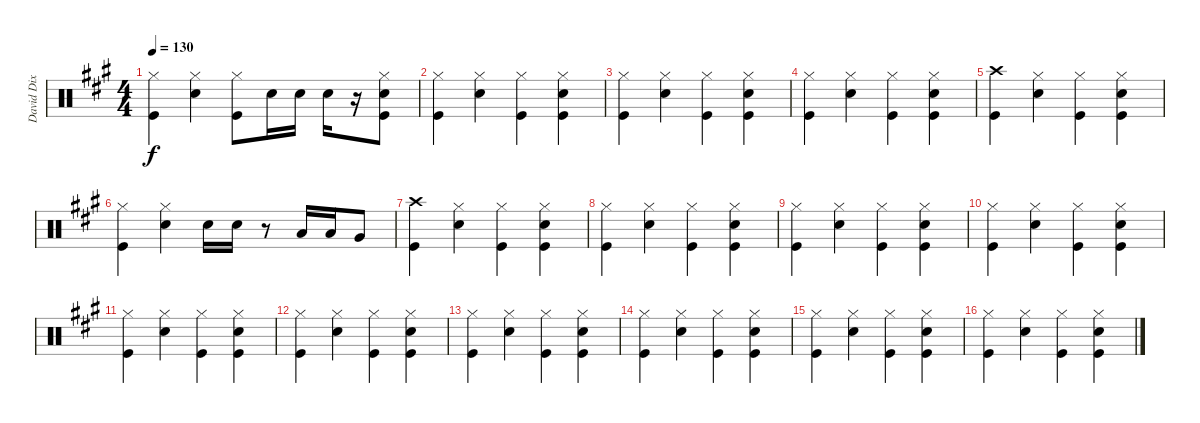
\track ("David Dix Drums" "David Dix ") {instrument percussion}
\staff {score}
\articulation defaults
\ts (4 4)
\tempo 130
\clef neutral
\ks f#minor
("Hi-Hat (closed)" "Kick (hit)").4{dy f} ("Hi-Hat (closed)" "Snare (hit) 2").4 ("Hi-Hat (closed)" "Kick (hit)").8 "Snare (hit) 2".16 "Snare (hit) 2".16 "Snare (hit) 2".16 r.16 ("Hi-Hat (closed)" "Snare (hit) 2" "Kick (hit)").8 |
("Hi-Hat (closed)" "Kick (hit)").4 ("Hi-Hat (closed)" "Snare (hit) 2").4 ("Hi-Hat (closed)" "Kick (hit)").4 ("Hi-Hat (closed)" "Snare (hit) 2" "Kick (hit)").4 |
("Hi-Hat (closed)" "Kick (hit)").4 ("Hi-Hat (closed)" "Snare (hit) 2").4 ("Hi-Hat (closed)" "Kick (hit)").4 ("Hi-Hat (closed)" "Snare (hit) 2" "Kick (hit)").4 |
("Hi-Hat (closed)" "Kick (hit)").4 ("Hi-Hat (closed)" "Snare (hit) 2").4 ("Hi-Hat (closed)" "Kick (hit)").4 ("Hi-Hat (closed)" "Snare (hit) 2" "Kick (hit)").4 |
("Crash high (hit)" "Kick (hit)").4 ("Hi-Hat (closed)" "Snare (hit) 2").4 ("Hi-Hat (closed)" "Kick (hit)").4 ("Hi-Hat (closed)" "Snare (hit) 2" "Kick (hit)").4 |
("Hi-Hat (closed)" "Kick (hit)").4 ("Hi-Hat (closed)" "Snare (hit) 2").4 "Snare (hit) 2".16 "Snare (hit) 2".16 r.8 "Low Tom (hit)".16 "Low Tom (hit)".16 "Very Low Tom (hit)".8 |
("Crash high (hit)" "Kick (hit)").4 ("Hi-Hat (closed)" "Snare (hit) 2").4 ("Hi-Hat (closed)" "Kick (hit)").4 ("Hi-Hat (closed)" "Snare (hit) 2" "Kick (hit)").4 |
("Hi-Hat (closed)" "Kick (hit)").4 ("Hi-Hat (closed)" "Snare (hit) 2").4 ("Hi-Hat (closed)" "Kick (hit)").4 ("Hi-Hat (closed)" "Snare (hit) 2" "Kick (hit)").4 |
("Hi-Hat (closed)" "Kick (hit)").4 ("Hi-Hat (closed)" "Snare (hit) 2").4 ("Hi-Hat (closed)" "Kick (hit)").4 ("Hi-Hat (closed)" "Snare (hit) 2" "Kick (hit)").4 |
("Hi-Hat (closed)" "Kick (hit)").4 ("Hi-Hat (closed)" "Snare (hit) 2").4 ("Hi-Hat (closed)" "Kick (hit)").4 ("Hi-Hat (closed)" "Snare (hit) 2" "Kick (hit)").4 |
("Hi-Hat (closed)" "Kick (hit)").4 ("Hi-Hat (closed)" "Snare (hit) 2").4 ("Hi-Hat (closed)" "Kick (hit)").4 ("Hi-Hat (closed)" "Snare (hit) 2" "Kick (hit)").4 |
("Hi-Hat (closed)" "Kick (hit)").4 ("Hi-Hat (closed)" "Snare (hit) 2").4 ("Hi-Hat (closed)" "Kick (hit)").4 ("Hi-Hat (closed)" "Snare (hit) 2" "Kick (hit)").4 |
("Hi-Hat (closed)" "Kick (hit)").4 ("Hi-Hat (closed)" "Snare (hit) 2").4 ("Hi-Hat (closed)" "Kick (hit)").4 ("Hi-Hat (closed)" "Snare (hit) 2" "Kick (hit)").4 |
("Hi-Hat (closed)" "Kick (hit)").4 ("Hi-Hat (closed)" "Snare (hit) 2").4 ("Hi-Hat (closed)" "Kick (hit)").4 ("Hi-Hat (closed)" "Snare (hit) 2" "Kick (hit)").4 |
("Hi-Hat (closed)" "Kick (hit)").4 ("Hi-Hat (closed)" "Snare (hit) 2").4 ("Hi-Hat (closed)" "Kick (hit)").4 ("Hi-Hat (closed)" "Snare (hit) 2" "Kick (hit)").4 |
("Hi-Hat (closed)" "Kick (hit)").4 ("Hi-Hat (closed)" "Snare (hit) 2").4 ("Hi-Hat (closed)" "Kick (hit)").4 ("Hi-Hat (closed)" "Snare (hit) 2" "Kick (hit)").4
